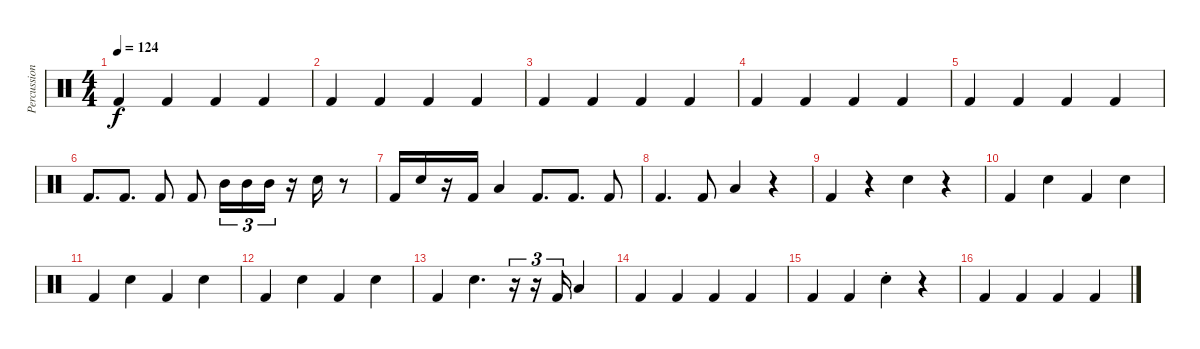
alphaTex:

\track ("Percussion" "Percussion") {instrument percussion}
\staff {score}
\articulation defaults
\ts (4 4)
\tempo 124
\clef neutral
\ks c "Kick (hit) 2".4{dy f} "Kick (hit) 2".4 "Kick (hit) 2".4 "Kick (hit) 2".4
|
"Kick (hit) 2".4 "Kick (hit) 2".4 "Kick (hit) 2".4 "Kick (hit) 2".4 |
"Kick (hit) 2".4 "Kick (hit) 2".4 "Kick (hit) 2".4 "Kick (hit) 2".4 |
"Kick (hit) 2".4 "Kick (hit) 2".4 "Kick (hit) 2".4 "Kick (hit) 2".4 |
"Kick (hit) 2".4 "Kick (hit) 2".4 "Kick (hit) 2".4 "Kick (hit) 2".4 |
"Kick (hit) 2".8{d} "Kick (hit) 2".8{d} "Kick (hit) 2".8 "Kick (hit) 2".8 "Mid Tom (hit)".16{tu (3 2)} "Mid Tom (hit)".16{tu (3 2)} "Mid Tom (hit)".16{tu (3 2)} r.16 "Snare (hit) 2".16 r.8 |
"Kick (hit) 2".16 "Snare (hit) 2".16 r.16 "Kick (hit) 2".16 "Low Floor Tom (hit)".4 "Kick (hit) 2".8{d} "Kick (hit) 2".8{d} "Kick (hit) 2".8 |
"Kick (hit) 2".4{d} "Kick (hit) 2".8 "Low Floor Tom (hit)".4 r.4 |
"Kick (hit) 2".4 r.4 "Snare (hit) 2".4 r.4 |
"Kick (hit) 2".4 "Snare (hit) 2".4 "Kick (hit) 2".4 "Snare (hit) 2".4 |
"Kick (hit) 2".4 "Snare (hit) 2".4 "Kick (hit) 2".4 "Snare (hit) 2".4 |
"Kick (hit) 2".4 "Snare (hit) 2".4 "Kick (hit) 2".4 "Snare (hit) 2".4 |
"Kick (hit) 2".4 "Snare (hit) 2".4{d} r.16{tu (3 2)} r.16{tu (3 2)} "Kick (hit) 2".16{tu (3 2)} "Low Floor Tom (hit)".4 |
"Kick (hit) 2".4 "Kick (hit) 2".4 "Kick (hit) 2".4 "Kick (hit) 2".4 |
"Kick (hit) 2".4 "Kick (hit) 2".4 "Snare (hit) 2"{st}.4 r.4 |
"Kick (hit) 2".4 "Kick (hit) 2".4 "Kick (hit) 2".4 "Kick (hit) 2".4
